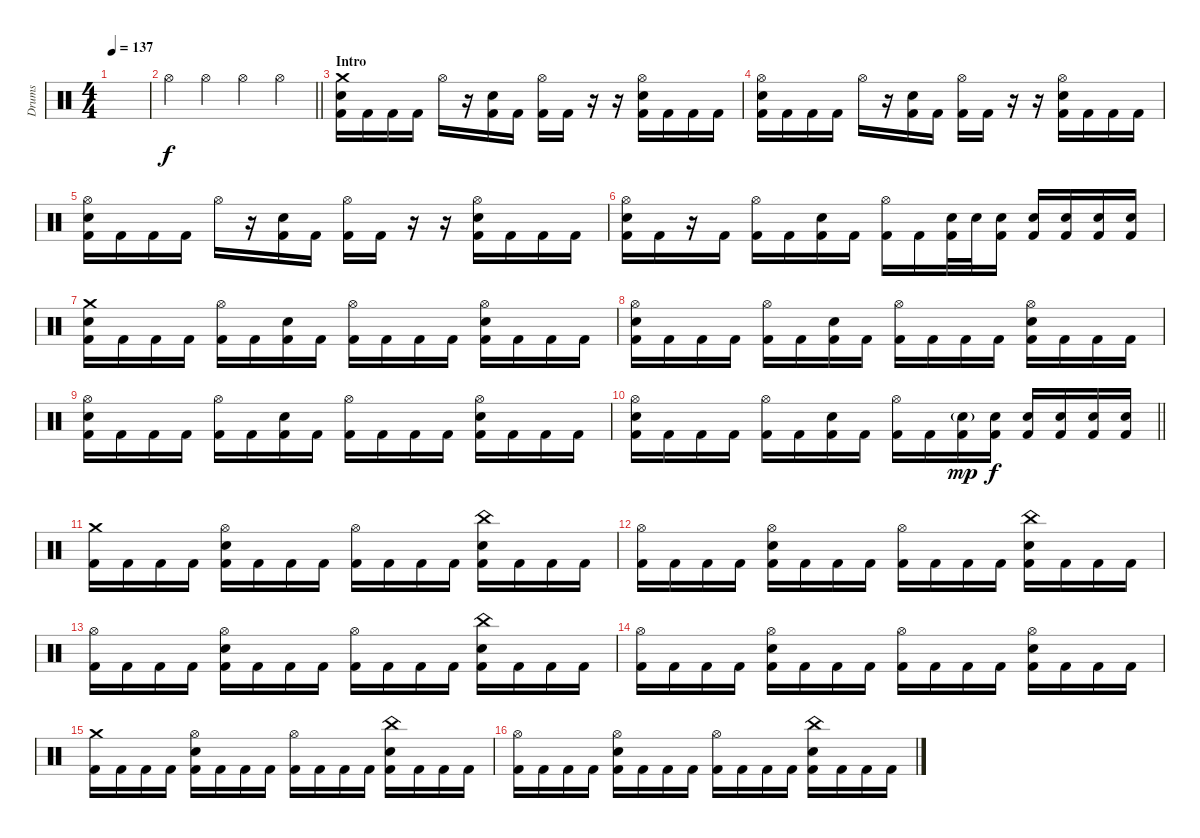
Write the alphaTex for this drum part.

\track ("Drums" "Drums") {instrument percussion}
\staff {score}
\articulation defaults
\ts (4 4)
\tempo 137
\clef neutral
\ks c
|
\barLineRight lightlight "Hi-Hat (open)".4 "Hi-Hat (open)".4 "Hi-Hat (open)".4 "Hi-Hat (open)".4
|
\section ("" "Intro")
("Crash medium (hit)" "Electric Snare (hit)" "Kick (hit) 2").16 "Kick (hit) 2".16 "Kick (hit) 2".16 "Kick (hit) 2".16 "Hi-Hat (open)".16 r.16 ("Electric Snare (hit)" "Kick (hit) 2").16 "Kick (hit) 2".16 ("Hi-Hat (open)" "Kick (hit) 2").16 "Kick (hit) 2".16 r.16 r.16 ("Hi-Hat (open)" "Electric Snare (hit)" "Kick (hit) 2").16 "Kick (hit) 2".16 "Kick (hit) 2".16 "Kick (hit) 2".16 |
("Hi-Hat (open)" "Electric Snare (hit)" "Kick (hit) 2").16 "Kick (hit) 2".16 "Kick (hit) 2".16 "Kick (hit) 2".16 "Hi-Hat (open)".16 r.16 ("Electric Snare (hit)" "Kick (hit) 2").16 "Kick (hit) 2".16 ("Hi-Hat (open)" "Kick (hit) 2").16 "Kick (hit) 2".16 r.16 r.16 ("Hi-Hat (open)" "Electric Snare (hit)" "Kick (hit) 2").16 "Kick (hit) 2".16 "Kick (hit) 2".16 "Kick (hit) 2".16 |
("Hi-Hat (open)" "Electric Snare (hit)" "Kick (hit) 2").16 "Kick (hit) 2".16 "Kick (hit) 2".16 "Kick (hit) 2".16 "Hi-Hat (open)".16 r.16 ("Electric Snare (hit)" "Kick (hit) 2").16 "Kick (hit) 2".16 ("Hi-Hat (open)" "Kick (hit) 2").16 "Kick (hit) 2".16 r.16 r.16 ("Hi-Hat (open)" "Electric Snare (hit)" "Kick (hit) 2").16 "Kick (hit) 2".16 "Kick (hit) 2".16 "Kick (hit) 2".16 |
("Hi-Hat (open)" "Electric Snare (hit)" "Kick (hit) 2").16 "Kick (hit) 2".16 r.16 "Kick (hit) 2".16 ("Hi-Hat (open)" "Kick (hit) 2").16 "Kick (hit) 2".16 ("Electric Snare (hit)" "Kick (hit) 2").16 "Kick (hit) 2".16 ("Hi-Hat (open)" "Kick (hit) 2").16 "Kick (hit) 2".16 ("Electric Snare (hit)" "Kick (hit) 2").32 "Electric Snare (hit)".32 ("Electric Snare (hit)" "Kick (hit) 2").16 ("Electric Snare (hit)" "Kick (hit) 2").16 ("Electric Snare (hit)" "Kick (hit) 2").16 ("Electric Snare (hit)" "Kick (hit) 2").16 ("Electric Snare (hit)" "Kick (hit) 2").16 |
("Crash medium (hit)" "Electric Snare (hit)" "Kick (hit) 2").16 "Kick (hit) 2".16 "Kick (hit) 2".16 "Kick (hit) 2".16 ("Hi-Hat (open)" "Kick (hit) 2").16 "Kick (hit) 2".16 ("Electric Snare (hit)" "Kick (hit) 2").16 "Kick (hit) 2".16 ("Hi-Hat (open)" "Kick (hit) 2").16 "Kick (hit) 2".16 "Kick (hit) 2".16 "Kick (hit) 2".16 ("Hi-Hat (open)" "Electric Snare (hit)" "Kick (hit) 2").16 "Kick (hit) 2".16 "Kick (hit) 2".16 "Kick (hit) 2".16 |
("Hi-Hat (open)" "Electric Snare (hit)" "Kick (hit) 2").16 "Kick (hit) 2".16 "Kick (hit) 2".16 "Kick (hit) 2".16 ("Hi-Hat (open)" "Kick (hit) 2").16 "Kick (hit) 2".16 ("Electric Snare (hit)" "Kick (hit) 2").16 "Kick (hit) 2".16 ("Hi-Hat (open)" "Kick (hit) 2").16 "Kick (hit) 2".16 "Kick (hit) 2".16 "Kick (hit) 2".16 ("Hi-Hat (open)" "Electric Snare (hit)" "Kick (hit) 2").16 "Kick (hit) 2".16 "Kick (hit) 2".16 "Kick (hit) 2".16 |
("Hi-Hat (open)" "Electric Snare (hit)" "Kick (hit) 2").16 "Kick (hit) 2".16 "Kick (hit) 2".16 "Kick (hit) 2".16 ("Hi-Hat (open)" "Kick (hit) 2").16 "Kick (hit) 2".16 ("Electric Snare (hit)" "Kick (hit) 2").16 "Kick (hit) 2".16 ("Hi-Hat (open)" "Kick (hit) 2").16 "Kick (hit) 2".16 "Kick (hit) 2".16 "Kick (hit) 2".16 ("Hi-Hat (open)" "Electric Snare (hit)" "Kick (hit) 2").16 "Kick (hit) 2".16 "Kick (hit) 2".16 "Kick (hit) 2".16 |
\barLineRight lightlight
("Hi-Hat (open)" "Electric Snare (hit)" "Kick (hit) 2").16 "Kick (hit) 2".16 "Kick (hit) 2".16 "Kick (hit) 2".16 ("Hi-Hat (open)" "Kick (hit) 2").16 "Kick (hit) 2".16 ("Electric Snare (hit)" "Kick (hit) 2").16 "Kick (hit) 2".16 ("Hi-Hat (open)" "Kick (hit) 2").16 "Kick (hit) 2".16 ("Electric Snare (hit)"{g} "Kick (hit) 2").16{dy mp} ("Electric Snare (hit)" "Kick (hit) 2").16{dy f} ("Electric Snare (hit)" "Kick (hit) 2").16 ("Electric Snare (hit)" "Kick (hit) 2").16 ("Electric Snare (hit)" "Kick (hit) 2").16 ("Electric Snare (hit)" "Kick (hit) 2").16 |
\section ("" "")
("Crash medium (hit)" "Kick (hit) 2").16 "Kick (hit) 2".16 "Kick (hit) 2".16 "Kick (hit) 2".16 ("Hi-Hat (open)" "Electric Snare (hit)" "Kick (hit) 2").16 "Kick (hit) 2".16 "Kick (hit) 2".16 "Kick (hit) 2".16 ("Hi-Hat (open)" "Kick (hit) 2").16 "Kick (hit) 2".16 "Kick (hit) 2".16 "Kick (hit) 2".16 ("China (hit)" "Electric Snare (hit)" "Kick (hit) 2").16 "Kick (hit) 2".16 "Kick (hit) 2".16 "Kick (hit) 2".16 |
("Hi-Hat (open)" "Kick (hit) 2").16 "Kick (hit) 2".16 "Kick (hit) 2".16 "Kick (hit) 2".16 ("Hi-Hat (open)" "Electric Snare (hit)" "Kick (hit) 2").16 "Kick (hit) 2".16 "Kick (hit) 2".16 "Kick (hit) 2".16 ("Hi-Hat (open)" "Kick (hit) 2").16 "Kick (hit) 2".16 "Kick (hit) 2".16 "Kick (hit) 2".16 ("China (hit)" "Electric Snare (hit)" "Kick (hit) 2").16 "Kick (hit) 2".16 "Kick (hit) 2".16 "Kick (hit) 2".16 |
("Hi-Hat (open)" "Kick (hit) 2").16 "Kick (hit) 2".16 "Kick (hit) 2".16 "Kick (hit) 2".16 ("Hi-Hat (open)" "Electric Snare (hit)" "Kick (hit) 2").16 "Kick (hit) 2".16 "Kick (hit) 2".16 "Kick (hit) 2".16 ("Hi-Hat (open)" "Kick (hit) 2").16 "Kick (hit) 2".16 "Kick (hit) 2".16 "Kick (hit) 2".16 ("China (hit)" "Electric Snare (hit)" "Kick (hit) 2").16 "Kick (hit) 2".16 "Kick (hit) 2".16 "Kick (hit) 2".16 |
("Hi-Hat (open)" "Kick (hit) 2").16 "Kick (hit) 2".16 "Kick (hit) 2".16 "Kick (hit) 2".16 ("Hi-Hat (open)" "Electric Snare (hit)" "Kick (hit) 2").16 "Kick (hit) 2".16 "Kick (hit) 2".16 "Kick (hit) 2".16 ("Hi-Hat (open)" "Kick (hit) 2").16 "Kick (hit) 2".16 "Kick (hit) 2".16 "Kick (hit) 2".16 ("Hi-Hat (open)" "Electric Snare (hit)" "Kick (hit) 2").16 "Kick (hit) 2".16 "Kick (hit) 2".16 "Kick (hit) 2".16 |
("Crash medium (hit)" "Kick (hit) 2").16 "Kick (hit) 2".16 "Kick (hit) 2".16 "Kick (hit) 2".16 ("Hi-Hat (open)" "Electric Snare (hit)" "Kick (hit) 2").16 "Kick (hit) 2".16 "Kick (hit) 2".16 "Kick (hit) 2".16 ("Hi-Hat (open)" "Kick (hit) 2").16 "Kick (hit) 2".16 "Kick (hit) 2".16 "Kick (hit) 2".16 ("China (hit)" "Electric Snare (hit)" "Kick (hit) 2").16 "Kick (hit) 2".16 "Kick (hit) 2".16 "Kick (hit) 2".16 |
("Hi-Hat (open)" "Kick (hit) 2").16 "Kick (hit) 2".16 "Kick (hit) 2".16 "Kick (hit) 2".16 ("Hi-Hat (open)" "Electric Snare (hit)" "Kick (hit) 2").16 "Kick (hit) 2".16 "Kick (hit) 2".16 "Kick (hit) 2".16 ("Hi-Hat (open)" "Kick (hit) 2").16 "Kick (hit) 2".16 "Kick (hit) 2".16 "Kick (hit) 2".16 ("China (hit)" "Electric Snare (hit)" "Kick (hit) 2").16 "Kick (hit) 2".16 "Kick (hit) 2".16 "Kick (hit) 2".16
